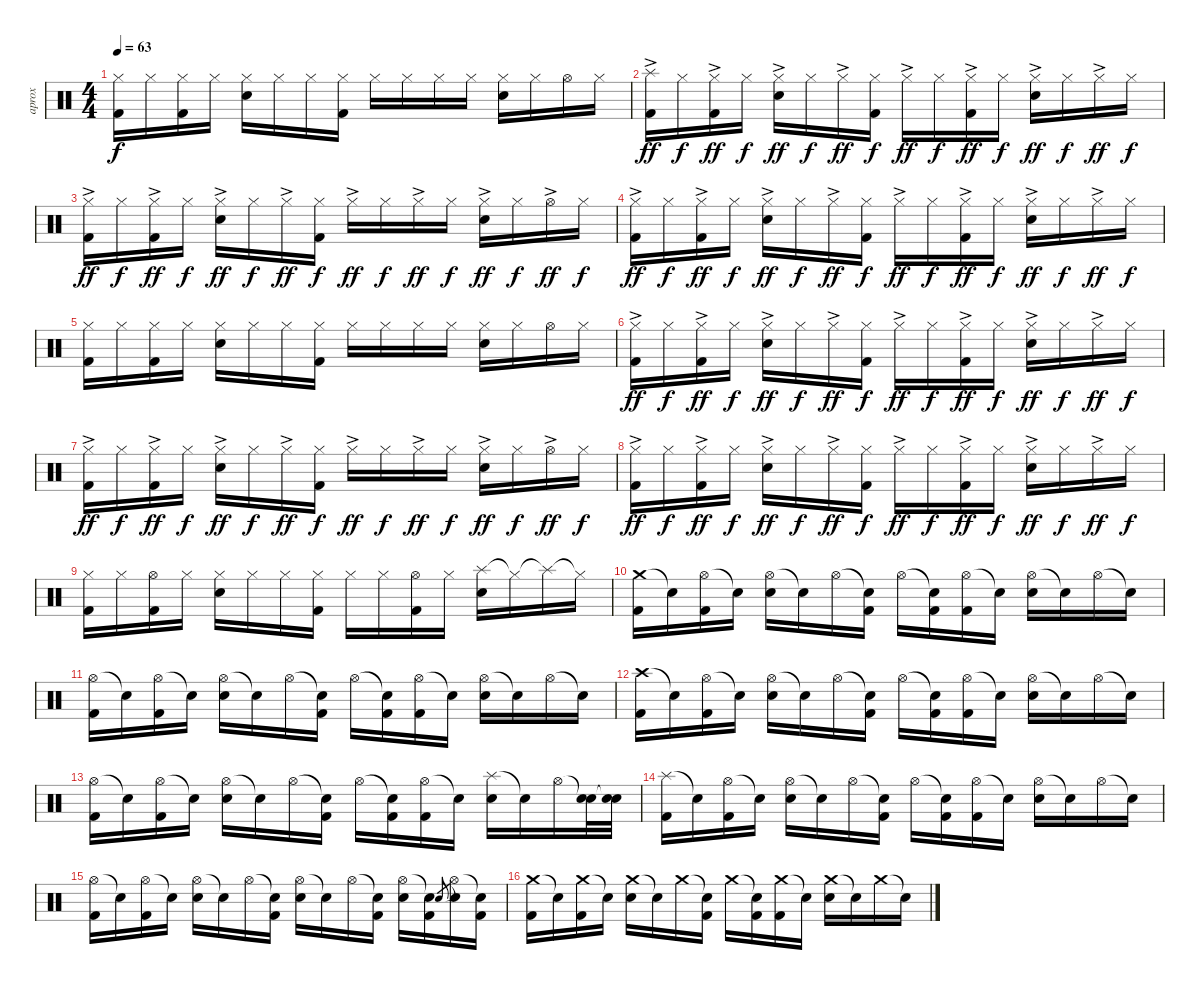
\track ("aprox" "aprox") {instrument percussion}
\staff {score}
\articulation defaults
\ts (4 4)
\tempo 63
\clef neutral
\ks c
("Hi-Hat (closed)" "Kick (hit) 2").16{dy f} "Hi-Hat (closed)".16 ("Hi-Hat (closed)" "Kick (hit) 2").16 "Hi-Hat (closed)".16 ("Hi-Hat (closed)" "Electric Snare (hit)").16 "Hi-Hat (closed)".16 "Hi-Hat (closed)".16 ("Hi-Hat (closed)" "Kick (hit) 2").16 "Hi-Hat (closed)".16 "Hi-Hat (closed)".16 "Hi-Hat (closed)".16 "Hi-Hat (closed)".16 ("Hi-Hat (closed)" "Electric Snare (hit)").16 "Hi-Hat (closed)".16 "Hi-Hat (open)".16 "Hi-Hat (closed)".16 |
("Splash (hit)"{ac} "Kick (hit) 2").16{dy ff} "Hi-Hat (closed)".16{dy f} ("Hi-Hat (closed)"{ac} "Kick (hit) 2").16{dy ff} "Hi-Hat (closed)".16{dy f} ("Hi-Hat (closed)"{ac} "Electric Snare (hit)").16{dy ff} "Hi-Hat (closed)".16{dy f} "Hi-Hat (closed)"{ac}.16{dy ff} ("Hi-Hat (closed)" "Kick (hit) 2").16{dy f} "Hi-Hat (closed)"{ac}.16{dy ff} "Hi-Hat (closed)".16{dy f} ("Hi-Hat (closed)"{ac} "Kick (hit) 2").16{dy ff} "Hi-Hat (closed)".16{dy f} ("Hi-Hat (closed)"{ac} "Electric Snare (hit)").16{dy ff} "Hi-Hat (closed)".16{dy f} "Hi-Hat (closed)"{ac}.16{dy ff} "Hi-Hat (closed)".16{dy f} |
("Hi-Hat (closed)"{ac} "Kick (hit) 2").16{dy ff} "Hi-Hat (closed)".16{dy f} ("Hi-Hat (closed)"{ac} "Kick (hit) 2").16{dy ff} "Hi-Hat (closed)".16{dy f} ("Hi-Hat (closed)"{ac} "Electric Snare (hit)").16{dy ff} "Hi-Hat (closed)".16{dy f} "Hi-Hat (closed)"{ac}.16{dy ff} ("Hi-Hat (closed)" "Kick (hit) 2").16{dy f} "Hi-Hat (closed)"{ac}.16{dy ff} "Hi-Hat (closed)".16{dy f} "Hi-Hat (closed)"{ac}.16{dy ff} "Hi-Hat (closed)".16{dy f} ("Hi-Hat (closed)"{ac} "Electric Snare (hit)").16{dy ff} "Hi-Hat (closed)".16{dy f} "Hi-Hat (open)"{ac}.16{dy ff} "Hi-Hat (closed)".16{dy f} |
("Hi-Hat (closed)"{ac} "Kick (hit) 2").16{dy ff} "Hi-Hat (closed)".16{dy f} ("Hi-Hat (closed)"{ac} "Kick (hit) 2").16{dy ff} "Hi-Hat (closed)".16{dy f} ("Hi-Hat (closed)"{ac} "Electric Snare (hit)").16{dy ff} "Hi-Hat (closed)".16{dy f} "Hi-Hat (closed)"{ac}.16{dy ff} ("Hi-Hat (closed)" "Kick (hit) 2").16{dy f} "Hi-Hat (closed)"{ac}.16{dy ff} "Hi-Hat (closed)".16{dy f} ("Hi-Hat (closed)"{ac} "Kick (hit) 2").16{dy ff} "Hi-Hat (closed)".16{dy f} ("Hi-Hat (closed)"{ac} "Electric Snare (hit)").16{dy ff} "Hi-Hat (closed)".16{dy f} "Hi-Hat (closed)"{ac}.16{dy ff} "Hi-Hat (closed)".16{dy f} |
("Hi-Hat (closed)" "Kick (hit) 2").16 "Hi-Hat (closed)".16 ("Hi-Hat (closed)" "Kick (hit) 2").16 "Hi-Hat (closed)".16 ("Hi-Hat (closed)" "Electric Snare (hit)").16 "Hi-Hat (closed)".16 "Hi-Hat (closed)".16 ("Hi-Hat (closed)" "Kick (hit) 2").16 "Hi-Hat (closed)".16 "Hi-Hat (closed)".16 "Hi-Hat (closed)".16 "Hi-Hat (closed)".16 ("Hi-Hat (closed)" "Electric Snare (hit)").16 "Hi-Hat (closed)".16 "Hi-Hat (open)".16 "Hi-Hat (closed)".16 |
("Hi-Hat (closed)"{ac} "Kick (hit) 2").16{dy ff} "Hi-Hat (closed)".16{dy f} ("Hi-Hat (closed)"{ac} "Kick (hit) 2").16{dy ff} "Hi-Hat (closed)".16{dy f} ("Hi-Hat (closed)"{ac} "Electric Snare (hit)").16{dy ff} "Hi-Hat (closed)".16{dy f} "Hi-Hat (closed)"{ac}.16{dy ff} ("Hi-Hat (closed)" "Kick (hit) 2").16{dy f} "Hi-Hat (closed)"{ac}.16{dy ff} "Hi-Hat (closed)".16{dy f} ("Hi-Hat (closed)"{ac} "Kick (hit) 2").16{dy ff} "Hi-Hat (closed)".16{dy f} ("Hi-Hat (closed)"{ac} "Electric Snare (hit)").16{dy ff} "Hi-Hat (closed)".16{dy f} "Hi-Hat (closed)"{ac}.16{dy ff} "Hi-Hat (closed)".16{dy f} |
("Hi-Hat (closed)"{ac} "Kick (hit) 2").16{dy ff} "Hi-Hat (closed)".16{dy f} ("Hi-Hat (closed)"{ac} "Kick (hit) 2").16{dy ff} "Hi-Hat (closed)".16{dy f} ("Hi-Hat (closed)"{ac} "Electric Snare (hit)").16{dy ff} "Hi-Hat (closed)".16{dy f} "Hi-Hat (closed)"{ac}.16{dy ff} ("Hi-Hat (closed)" "Kick (hit) 2").16{dy f} "Hi-Hat (closed)"{ac}.16{dy ff} "Hi-Hat (closed)".16{dy f} "Hi-Hat (closed)"{ac}.16{dy ff} "Hi-Hat (closed)".16{dy f} ("Hi-Hat (closed)"{ac} "Electric Snare (hit)").16{dy ff} "Hi-Hat (closed)".16{dy f} "Hi-Hat (open)"{ac}.16{dy ff} "Hi-Hat (closed)".16{dy f} |
("Hi-Hat (closed)"{ac} "Kick (hit) 2").16{dy ff} "Hi-Hat (closed)".16{dy f} ("Hi-Hat (closed)"{ac} "Kick (hit) 2").16{dy ff} "Hi-Hat (closed)".16{dy f} ("Hi-Hat (closed)"{ac} "Electric Snare (hit)").16{dy ff} "Hi-Hat (closed)".16{dy f} "Hi-Hat (closed)"{ac}.16{dy ff} ("Hi-Hat (closed)" "Kick (hit) 2").16{dy f} "Hi-Hat (closed)"{ac}.16{dy ff} "Hi-Hat (closed)".16{dy f} ("Hi-Hat (closed)"{ac} "Kick (hit) 2").16{dy ff} "Hi-Hat (closed)".16{dy f} ("Hi-Hat (closed)"{ac} "Electric Snare (hit)").16{dy ff} "Hi-Hat (closed)".16{dy f} "Hi-Hat (closed)"{ac}.16{dy ff} "Hi-Hat (closed)".16{dy f} |
("Hi-Hat (closed)" "Kick (hit) 2").16 "Hi-Hat (closed)".16 ("Hi-Hat (open)" "Kick (hit) 2").16 "Hi-Hat (closed)".16 ("Hi-Hat (closed)" "Electric Snare (hit)").16 "Hi-Hat (closed)".16 "Hi-Hat (closed)".16 ("Hi-Hat (closed)" "Kick (hit) 2").16 "Hi-Hat (closed)".16 "Hi-Hat (closed)".16 ("Hi-Hat (open)" "Kick (hit) 2").16 "Hi-Hat (closed)".16 ("Splash (hit)" "Electric Snare (hit)").16 "Hi-Hat (closed)"{t}.16 "Splash (hit)"{t}.16 "Hi-Hat (closed)"{t}.16 |
("Crash medium (hit)" "Kick (hit) 2").16 "Snare (hit)"{t}.16 ("Hi-Hat (open)" "Kick (hit) 2").16 "Snare (hit)"{t}.16 ("Hi-Hat (open)" "Electric Snare (hit)").16 "Snare (hit)"{t}.16 "Hi-Hat (open)".16 ("Snare (hit)"{t} "Kick (hit) 2").16 "Hi-Hat (open)".16 ("Snare (hit)"{t} "Kick (hit) 2").16 ("Hi-Hat (open)" "Kick (hit) 2").16 "Snare (hit)"{t}.16 ("Hi-Hat (open)" "Electric Snare (hit)").16 "Snare (hit)"{t}.16 "Hi-Hat (open)".16 "Snare (hit)"{t}.16 |
("Hi-Hat (open)" "Kick (hit) 2").16 "Snare (hit)"{t}.16 ("Hi-Hat (open)" "Kick (hit) 2").16 "Snare (hit)"{t}.16 ("Hi-Hat (open)" "Electric Snare (hit)").16 "Snare (hit)"{t}.16 "Hi-Hat (open)".16 ("Snare (hit)"{t} "Kick (hit) 2").16 "Hi-Hat (open)".16 ("Snare (hit)"{t} "Kick (hit) 2").16 ("Hi-Hat (open)" "Kick (hit) 2").16 "Snare (hit)"{t}.16 ("Hi-Hat (open)" "Electric Snare (hit)").16 "Snare (hit)"{t}.16 "Hi-Hat (open)".16 "Snare (hit)"{t}.16 |
("Crash high (hit)" "Kick (hit) 2").16 "Snare (hit)"{t}.16 ("Hi-Hat (open)" "Kick (hit) 2").16 "Snare (hit)"{t}.16 ("Hi-Hat (open)" "Electric Snare (hit)").16 "Snare (hit)"{t}.16 "Hi-Hat (open)".16 ("Snare (hit)"{t} "Kick (hit) 2").16 "Hi-Hat (open)".16 ("Snare (hit)"{t} "Kick (hit) 2").16 ("Hi-Hat (open)" "Kick (hit) 2").16 "Snare (hit)"{t}.16 ("Hi-Hat (open)" "Electric Snare (hit)").16 "Snare (hit)"{t}.16 "Hi-Hat (open)".16 "Snare (hit)"{t}.16 |
("Hi-Hat (open)" "Kick (hit) 2").16 "Snare (hit)"{t}.16 ("Hi-Hat (open)" "Kick (hit) 2").16 "Snare (hit)"{t}.16 ("Hi-Hat (open)" "Electric Snare (hit)").16 "Snare (hit)"{t}.16 "Hi-Hat (open)".16 ("Snare (hit)"{t} "Kick (hit) 2").16 "Hi-Hat (open)".16 ("Snare (hit)"{t} "Kick (hit) 2").16 ("Hi-Hat (open)" "Kick (hit) 2").16 "Snare (hit)"{t}.16 ("Splash (hit)" "Electric Snare (hit)").16 "Snare (hit)"{t}.16 "Hi-Hat (open)".16 ("Snare (hit)"{t} "Electric Snare (hit)").32 ("Snare (hit)"{t} "Electric Snare (hit)").32 |
("Splash (hit)" "Kick (hit) 2").16 "Snare (hit)"{t}.16 ("Hi-Hat (open)" "Kick (hit) 2").16 "Snare (hit)"{t}.16 ("Hi-Hat (open)" "Electric Snare (hit)").16 "Snare (hit)"{t}.16 "Hi-Hat (open)".16 ("Snare (hit)"{t} "Kick (hit) 2").16 "Hi-Hat (open)".16 ("Snare (hit)"{t} "Kick (hit) 2").16 ("Hi-Hat (open)" "Kick (hit) 2").16 "Snare (hit)"{t}.16 ("Hi-Hat (open)" "Electric Snare (hit)").16 "Snare (hit)"{t}.16 "Hi-Hat (open)".16 "Snare (hit)"{t}.16 |
("Hi-Hat (open)" "Kick (hit) 2").16 "Snare (hit)"{t}.16 ("Hi-Hat (open)" "Kick (hit) 2").16 "Snare (hit)"{t}.16 ("Hi-Hat (open)" "Electric Snare (hit)").16 "Snare (hit)"{t}.16 "Hi-Hat (open)".16 ("Snare (hit)"{t} "Kick (hit) 2").16 ("Hi-Hat (open)" "Electric Snare (hit)").16 "Snare (hit)"{t}.16 "Hi-Hat (open)".16 ("Snare (hit)"{t} "Kick (hit) 2").16 ("Hi-Hat (open)" "Electric Snare (hit)").16 ("Snare (hit)"{t} "Kick (hit) 2").16 "Electric Snare (hit)".8{gr} ("Hi-Hat (open)"{t} "Electric Snare (hit)").16 ("Snare (hit)"{t} "Kick (hit) 2").16 |
("Crash medium (hit)" "Kick (hit) 2").16 "Snare (hit)"{t}.16 ("Crash medium (hit)" "Kick (hit) 2").16 "Snare (hit)"{t}.16 ("Crash medium (hit)" "Electric Snare (hit)").16 "Snare (hit)"{t}.16 "Crash medium (hit)".16 ("Snare (hit)"{t} "Kick (hit) 2").16 "Crash medium (hit)".16 ("Snare (hit)"{t} "Kick (hit) 2").16 ("Crash medium (hit)" "Kick (hit) 2").16 "Snare (hit)"{t}.16 ("Crash medium (hit)" "Electric Snare (hit)").16 "Snare (hit)"{t}.16 "Crash medium (hit)".16 "Snare (hit)"{t}.16
